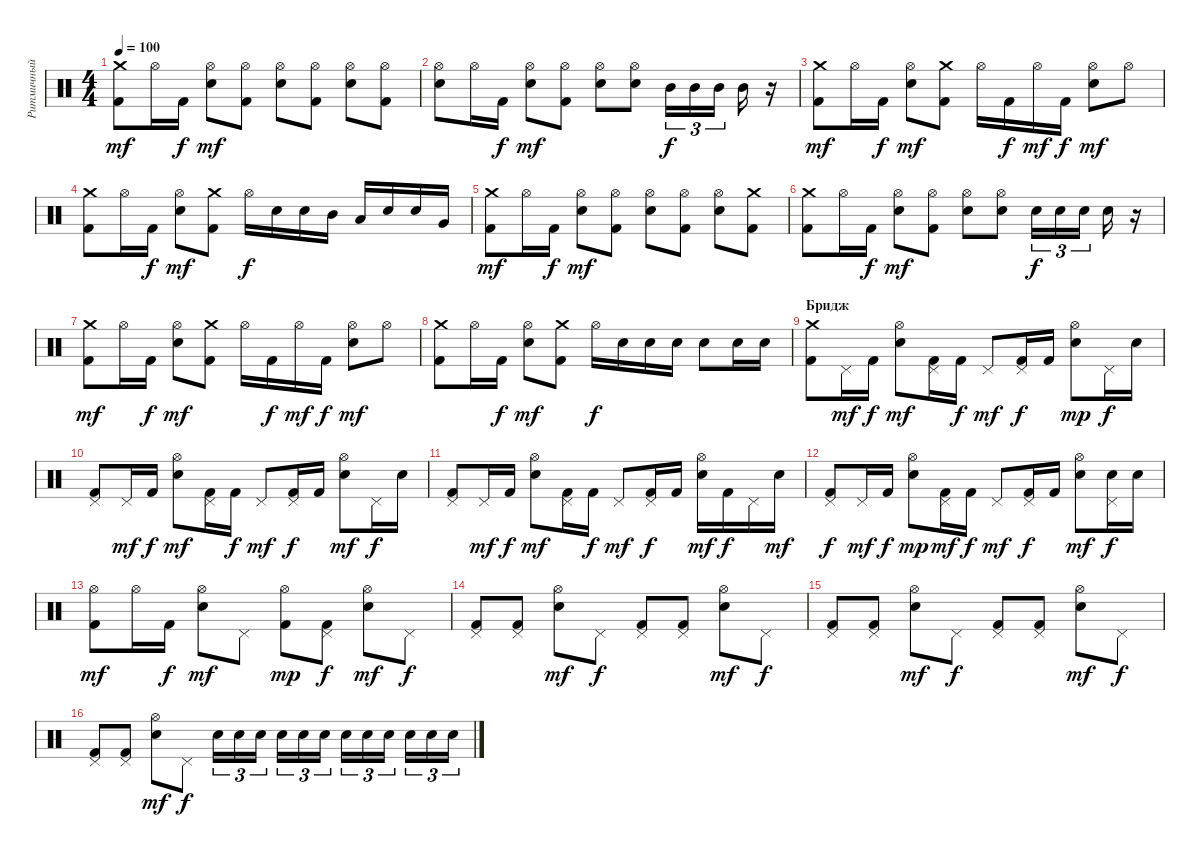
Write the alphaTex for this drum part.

\track ("Ритмичный Вова" "Ритмичный ") {instrument percussion}
\staff {score}
\articulation defaults
\ts (4 4)
\tempo 100
\clef neutral
\ks c
("Crash medium (hit)" "Kick (hit) 2").8{dy mf} "Hi-Hat (open)".16 "Kick (hit) 2".16{dy f} ("Hi-Hat (open)" "Electric Snare (hit)").8{dy mf} ("Hi-Hat (open)" "Kick (hit) 2").8 ("Hi-Hat (open)" "Electric Snare (hit)").8 ("Hi-Hat (open)" "Kick (hit) 2").8 ("Hi-Hat (open)" "Electric Snare (hit)").8 ("Hi-Hat (open)" "Kick (hit) 2").8 |
("Hi-Hat (open)" "Electric Snare (hit)").8 "Hi-Hat (open)".16 "Kick (hit) 2".16{dy f} ("Hi-Hat (open)" "Electric Snare (hit)").8{dy mf} ("Hi-Hat (open)" "Kick (hit) 2").8 ("Hi-Hat (open)" "Electric Snare (hit)").8 ("Hi-Hat (open)" "Electric Snare (hit)").8 "Mid Tom (hit)".16{tu (3 2) dy f} "Mid Tom (hit)".16{tu (3 2)} "Mid Tom (hit)".16{tu (3 2)} "Mid Tom (hit)".16 r.16 |
("Crash medium (hit)" "Kick (hit) 2").8{dy mf} "Hi-Hat (open)".16 "Kick (hit) 2".16{dy f} ("Hi-Hat (open)" "Electric Snare (hit)").8{dy mf} ("Crash medium (hit)" "Kick (hit) 2").8 "Hi-Hat (open)".16 "Kick (hit) 2".16{dy f} "Hi-Hat (open)".16{dy mf} "Kick (hit) 2".16{dy f} ("Hi-Hat (open)" "Electric Snare (hit)").8{dy mf} "Hi-Hat (open)".8 |
("Crash medium (hit)" "Kick (hit) 2").8 "Hi-Hat (open)".16 "Kick (hit) 2".16{dy f} ("Hi-Hat (open)" "Electric Snare (hit)").8{dy mf} ("Crash medium (hit)" "Kick (hit) 2").8 "Hi-Hat (open)".16{dy f} "Electric Snare (hit)".16 "Electric Snare (hit)".16 "Mid Tom (hit)".16 "Low Tom (hit)".16 "Electric Snare (hit)".16 "Electric Snare (hit)".16 "Very Low Tom (hit)".16 |
("Crash medium (hit)" "Kick (hit) 2").8{dy mf} "Hi-Hat (open)".16 "Kick (hit) 2".16{dy f} ("Hi-Hat (open)" "Electric Snare (hit)").8{dy mf} ("Hi-Hat (open)" "Kick (hit) 2").8 ("Hi-Hat (open)" "Electric Snare (hit)").8 ("Hi-Hat (open)" "Kick (hit) 2").8 ("Hi-Hat (open)" "Electric Snare (hit)").8 ("Crash medium (hit)" "Kick (hit) 2").8 |
("Crash medium (hit)" "Kick (hit) 2").8 "Hi-Hat (open)".16 "Kick (hit) 2".16{dy f} ("Hi-Hat (open)" "Electric Snare (hit)").8{dy mf} ("Hi-Hat (open)" "Kick (hit) 2").8 ("Hi-Hat (open)" "Electric Snare (hit)").8 ("Hi-Hat (open)" "Electric Snare (hit)").8 "Electric Snare (hit)".16{tu (3 2) dy f} "Electric Snare (hit)".16{tu (3 2)} "Electric Snare (hit)".16{tu (3 2)} "Electric Snare (hit)".16 r.16 |
("Crash medium (hit)" "Kick (hit) 2").8{dy mf} "Hi-Hat (open)".16 "Kick (hit) 2".16{dy f} ("Hi-Hat (open)" "Electric Snare (hit)").8{dy mf} ("Crash medium (hit)" "Kick (hit) 2").8 "Hi-Hat (open)".16 "Kick (hit) 2".16{dy f} "Hi-Hat (open)".16{dy mf} "Kick (hit) 2".16{dy f} ("Hi-Hat (open)" "Electric Snare (hit)").8{dy mf} "Hi-Hat (open)".8 |
("Crash medium (hit)" "Kick (hit) 2").8 "Hi-Hat (open)".16 "Kick (hit) 2".16{dy f} ("Hi-Hat (open)" "Electric Snare (hit)").8{dy mf} ("Crash medium (hit)" "Kick (hit) 2").8 "Hi-Hat (open)".16{dy f} "Electric Snare (hit)".16 "Electric Snare (hit)".16 "Electric Snare (hit)".16 "Electric Snare (hit)".8 "Electric Snare (hit)".16 "Electric Snare (hit)".16 |
\section ("" "Бридж")
("Crash medium (hit)" "Kick (hit) 2").8 "Pedal Hi-Hat (hit)".16{dy mf} "Kick (hit) 2".16{dy f} ("Hi-Hat (open)" "Electric Snare (hit)").8{dy mf} ("Pedal Hi-Hat (hit)" "Kick (hit) 2").16 "Kick (hit) 2".16{dy f} "Pedal Hi-Hat (hit)".8{dy mf} ("Pedal Hi-Hat (hit)" "Kick (hit) 2").16{dy f} "Kick (hit) 2".16 ("Hi-Hat (open)" "Electric Snare (hit)").8{dy mp} "Pedal Hi-Hat (hit)".16{dy f} "Electric Snare (hit)".16 |
("Pedal Hi-Hat (hit)" "Kick (hit) 2").8 "Pedal Hi-Hat (hit)".16{dy mf} "Kick (hit) 2".16{dy f} ("Hi-Hat (open)" "Electric Snare (hit)").8{dy mf} ("Pedal Hi-Hat (hit)" "Kick (hit) 2").16 "Kick (hit) 2".16{dy f} "Pedal Hi-Hat (hit)".8{dy mf} ("Pedal Hi-Hat (hit)" "Kick (hit) 2").16{dy f} "Kick (hit) 2".16 ("Hi-Hat (open)" "Electric Snare (hit)").8{dy mf} "Pedal Hi-Hat (hit)".16{dy f} "Electric Snare (hit)".16 |
("Pedal Hi-Hat (hit)" "Kick (hit) 2").8 "Pedal Hi-Hat (hit)".16{dy mf} "Kick (hit) 2".16{dy f} ("Hi-Hat (open)" "Electric Snare (hit)").8{dy mf} ("Pedal Hi-Hat (hit)" "Kick (hit) 2").16 "Kick (hit) 2".16{dy f} "Pedal Hi-Hat (hit)".8{dy mf} ("Pedal Hi-Hat (hit)" "Kick (hit) 2").16{dy f} "Kick (hit) 2".16 ("Hi-Hat (open)" "Electric Snare (hit)").16{dy mf} "Kick (hit) 2".16{dy f} "Pedal Hi-Hat (hit)".16 "Electric Snare (hit)".16{dy mf} |
("Pedal Hi-Hat (hit)" "Kick (hit) 2").8{dy f} "Pedal Hi-Hat (hit)".16{dy mf} "Kick (hit) 2".16{dy f} ("Hi-Hat (open)" "Electric Snare (hit)").8{dy mp} ("Pedal Hi-Hat (hit)" "Kick (hit) 2").16{dy mf} "Kick (hit) 2".16{dy f} "Pedal Hi-Hat (hit)".8{dy mf} ("Pedal Hi-Hat (hit)" "Kick (hit) 2").16{dy f} "Kick (hit) 2".16 ("Hi-Hat (open)" "Electric Snare (hit)").8{dy mf} ("Pedal Hi-Hat (hit)" "Electric Snare (hit)").16{dy f} "Electric Snare (hit)".16 |
("Hi-Hat (open)" "Kick (hit) 2").8{dy mf} "Hi-Hat (open)".16 "Kick (hit) 2".16{dy f} ("Hi-Hat (open)" "Electric Snare (hit)").8{dy mf} "Pedal Hi-Hat (hit)".8 ("Hi-Hat (open)" "Kick (hit) 2").8{dy mp} ("Pedal Hi-Hat (hit)" "Kick (hit) 2").8{dy f} ("Hi-Hat (open)" "Electric Snare (hit)").8{dy mf} "Pedal Hi-Hat (hit)".8{dy f} |
("Pedal Hi-Hat (hit)" "Kick (hit) 2").8 ("Pedal Hi-Hat (hit)" "Kick (hit) 2").8 ("Hi-Hat (open)" "Electric Snare (hit)").8{dy mf} "Pedal Hi-Hat (hit)".8{dy f} ("Pedal Hi-Hat (hit)" "Kick (hit) 2").8 ("Pedal Hi-Hat (hit)" "Kick (hit) 2").8 ("Hi-Hat (open)" "Electric Snare (hit)").8{dy mf} "Pedal Hi-Hat (hit)".8{dy f} |
("Pedal Hi-Hat (hit)" "Kick (hit) 2").8 ("Pedal Hi-Hat (hit)" "Kick (hit) 2").8 ("Hi-Hat (open)" "Electric Snare (hit)").8{dy mf} "Pedal Hi-Hat (hit)".8{dy f} ("Pedal Hi-Hat (hit)" "Kick (hit) 2").8 ("Pedal Hi-Hat (hit)" "Kick (hit) 2").8 ("Hi-Hat (open)" "Electric Snare (hit)").8{dy mf} "Pedal Hi-Hat (hit)".8{dy f} |
("Pedal Hi-Hat (hit)" "Kick (hit) 2").8 ("Pedal Hi-Hat (hit)" "Kick (hit) 2").8 ("Hi-Hat (open)" "Electric Snare (hit)").8{dy mf} "Pedal Hi-Hat (hit)".8{dy f} "Electric Snare (hit)".16{tu (3 2)} "Electric Snare (hit)".16{tu (3 2)} "Electric Snare (hit)".16{tu (3 2)} "Electric Snare (hit)".16{tu (3 2)} "Electric Snare (hit)".16{tu (3 2)} "Electric Snare (hit)".16{tu (3 2)} "Electric Snare (hit)".16{tu (3 2)} "Electric Snare (hit)".16{tu (3 2)} "Electric Snare (hit)".16{tu (3 2)} "Electric Snare (hit)".16{tu (3 2)} "Electric Snare (hit)".16{tu (3 2)} "Electric Snare (hit)".16{tu (3 2)}
